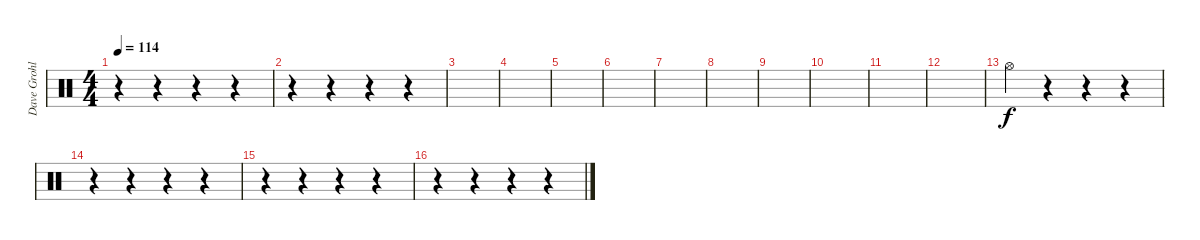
\track ("Dave Grohl" "Dave Grohl") {instrument percussion}
\staff {score}
\articulation defaults
\ts (4 4)
\tempo 114
\clef neutral
\ks c
r.4{dy f} r.4 r.4 r.4 |
r.4 r.4 r.4 r.4 |
|
|
|
|
|
|
|
|
|
|
"Hi-Hat (open)".4 r.4 r.4 r.4 |
r.4 r.4 r.4 r.4 |
r.4 r.4 r.4 r.4 |
r.4 r.4 r.4 r.4
